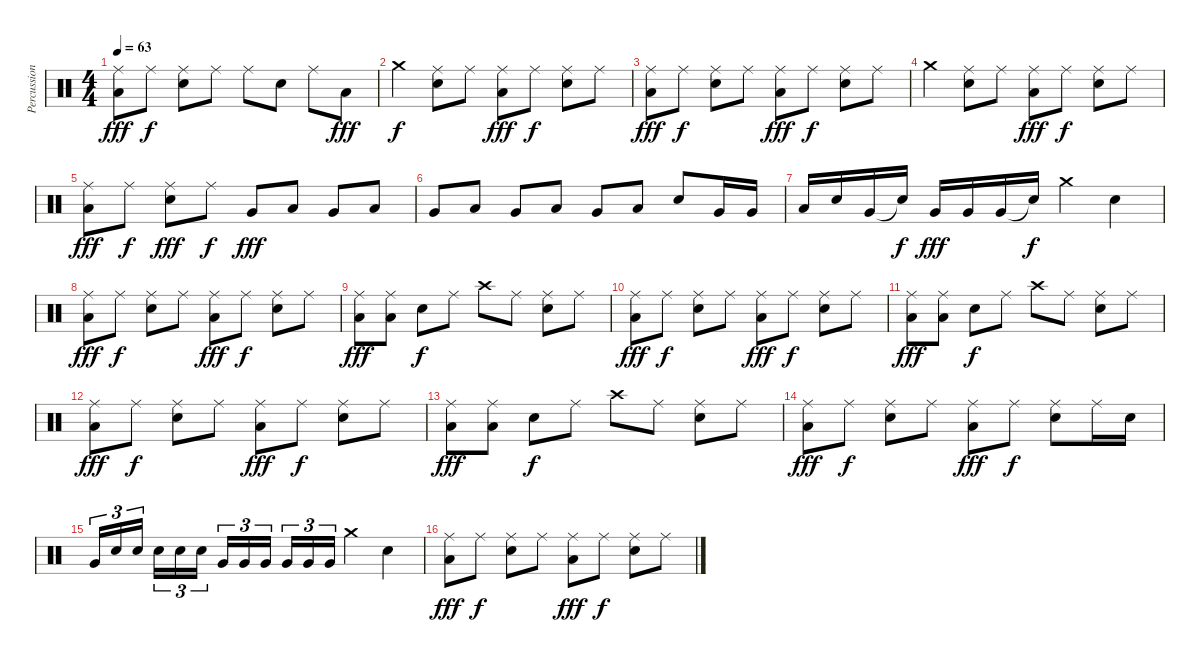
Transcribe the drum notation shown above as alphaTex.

\track ("Percussion" "Percussion") {instrument percussion}
\staff {score}
\articulation defaults
\ts (4 4)
\tempo 63
\clef neutral
\ks c
("Low Floor Tom (hit)" "Ride (middle)").8{dy fff} "Ride (middle)".8{dy f} ("Electric Snare (hit)" "Ride (middle)").8 "Ride (middle)".8 "Ride (middle)".8 "Electric Snare (hit)".8 "Ride (middle)".8 "Low Floor Tom (hit)".8{dy fff} |
"Crash medium (hit)".4{dy f} ("Electric Snare (hit)" "Ride (middle)").8 "Ride (middle)".8 ("Low Floor Tom (hit)" "Ride (middle)").8{dy fff} "Ride (middle)".8{dy f} ("Electric Snare (hit)" "Ride (middle)").8 "Ride (middle)".8 |
("Low Floor Tom (hit)" "Ride (middle)").8{dy fff} "Ride (middle)".8{dy f} ("Electric Snare (hit)" "Ride (middle)").8 "Ride (middle)".8 ("Low Floor Tom (hit)" "Ride (middle)").8{dy fff} "Ride (middle)".8{dy f} ("Electric Snare (hit)" "Ride (middle)").8 "Ride (middle)".8 |
"Crash medium (hit)".4 ("Electric Snare (hit)" "Ride (middle)").8 "Ride (middle)".8 ("Low Floor Tom (hit)" "Ride (middle)").8{dy fff} "Ride (middle)".8{dy f} ("Electric Snare (hit)" "Ride (middle)").8 "Ride (middle)".8 |
("Low Floor Tom (hit)" "Ride (middle)").8{dy fff} "Ride (middle)".8{dy f} ("Electric Snare (hit)" "Ride (middle)").8{dy fff} "Ride (middle)".8{dy f} "Very Low Tom (hit)".8{dy fff} "Low Floor Tom (hit)".8 "Very Low Tom (hit)".8 "Low Floor Tom (hit)".8 |
"Very Low Tom (hit)".8 "Low Floor Tom (hit)".8 "Very Low Tom (hit)".8 "Low Floor Tom (hit)".8 "Very Low Tom (hit)".8 "Low Floor Tom (hit)".8 "Electric Snare (hit)".8 "Very Low Tom (hit)".16 "Very Low Tom (hit)".16 |
"Low Floor Tom (hit)".16 "Electric Snare (hit)".16 "Very Low Tom (hit)".16 "Snare (hit)"{t}.16{dy f} "Very Low Tom (hit)".16{dy fff} "Very Low Tom (hit)".16 "Very Low Tom (hit)".16 "Snare (hit)"{t}.16{dy f} "Crash medium (hit)".4 "Electric Snare (hit)".4 |
("Low Floor Tom (hit)" "Ride (middle)").8{dy fff} "Ride (middle)".8{dy f} ("Electric Snare (hit)" "Ride (middle)").8 "Ride (middle)".8 ("Ride (middle)" "Low Floor Tom (hit)").8{dy fff} "Ride (middle)".8{dy f} ("Ride (middle)" "Electric Snare (hit)").8 "Ride (middle)".8 |
("Low Floor Tom (hit)" "Ride (middle)").8{dy fff} ("Low Floor Tom (hit)" "Ride (middle)").8 "Electric Snare (hit)".8{dy f} "Ride (middle)".8 "Crash high (hit)".8 "Ride (middle)".8 ("Electric Snare (hit)" "Ride (middle)").8 "Ride (middle)".8 |
("Low Floor Tom (hit)" "Ride (middle)").8{dy fff} "Ride (middle)".8{dy f} ("Electric Snare (hit)" "Ride (middle)").8 "Ride (middle)".8 ("Ride (middle)" "Low Floor Tom (hit)").8{dy fff} "Ride (middle)".8{dy f} ("Ride (middle)" "Electric Snare (hit)").8 "Ride (middle)".8 |
("Low Floor Tom (hit)" "Ride (middle)").8{dy fff} ("Low Floor Tom (hit)" "Ride (middle)").8 "Electric Snare (hit)".8{dy f} "Ride (middle)".8 "Crash high (hit)".8 "Ride (middle)".8 ("Electric Snare (hit)" "Ride (middle)").8 "Ride (middle)".8 |
("Low Floor Tom (hit)" "Ride (middle)").8{dy fff} "Ride (middle)".8{dy f} ("Electric Snare (hit)" "Ride (middle)").8 "Ride (middle)".8 ("Ride (middle)" "Low Floor Tom (hit)").8{dy fff} "Ride (middle)".8{dy f} ("Ride (middle)" "Electric Snare (hit)").8 "Ride (middle)".8 |
("Low Floor Tom (hit)" "Ride (middle)").8{dy fff} ("Low Floor Tom (hit)" "Ride (middle)").8 "Electric Snare (hit)".8{dy f} "Ride (middle)".8 "Crash high (hit)".8 "Ride (middle)".8 ("Electric Snare (hit)" "Ride (middle)").8 "Ride (middle)".8 |
("Low Floor Tom (hit)" "Ride (middle)").8{dy fff} "Ride (middle)".8{dy f} ("Electric Snare (hit)" "Ride (middle)").8 "Ride (middle)".8 ("Ride (middle)" "Low Floor Tom (hit)").8{dy fff} "Ride (middle)".8{dy f} ("Ride (middle)" "Electric Snare (hit)").8 "Ride (middle)".16 "Electric Snare (hit)".16 |
"Very Low Tom (hit)".16{tu (3 2)} "Electric Snare (hit)".16{tu (3 2)} "Electric Snare (hit)".16{tu (3 2)} "Electric Snare (hit)".16{tu (3 2)} "Electric Snare (hit)".16{tu (3 2)} "Electric Snare (hit)".16{tu (3 2)} "Very Low Tom (hit)".16{tu (3 2)} "Very Low Tom (hit)".16{tu (3 2)} "Very Low Tom (hit)".16{tu (3 2)} "Very Low Tom (hit)".16{tu (3 2)} "Very Low Tom (hit)".16{tu (3 2)} "Very Low Tom (hit)".16{tu (3 2)} "Crash medium (hit)".4 "Electric Snare (hit)".4 |
("Low Floor Tom (hit)" "Ride (middle)").8{dy fff} "Ride (middle)".8{dy f} ("Electric Snare (hit)" "Ride (middle)").8 "Ride (middle)".8 ("Low Floor Tom (hit)" "Ride (middle)").8{dy fff} "Ride (middle)".8{dy f} ("Electric Snare (hit)" "Ride (middle)").8 "Ride (middle)".8
